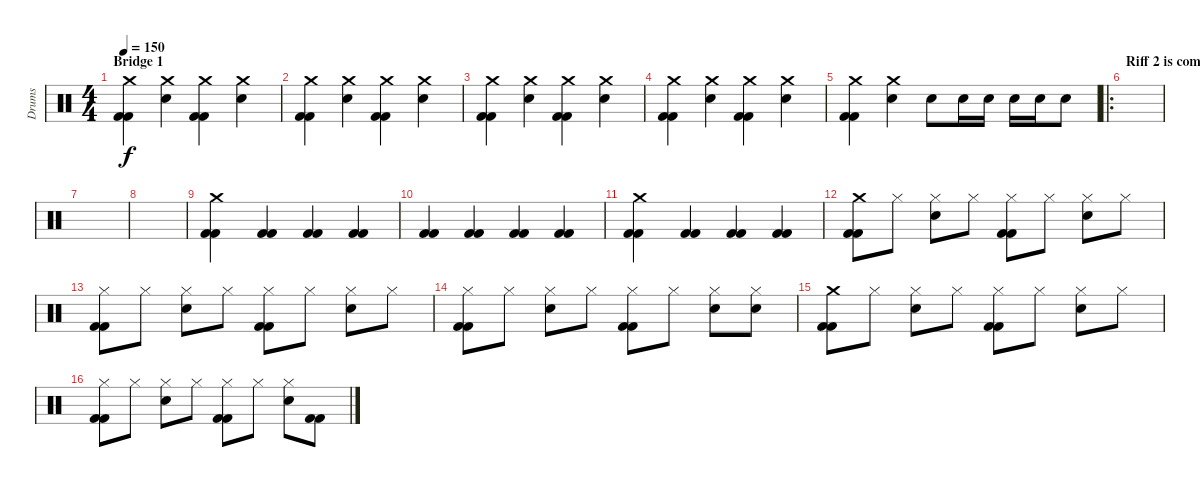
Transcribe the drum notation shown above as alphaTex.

\track ("Drums" "Drums") {instrument percussion}
\staff {score}
\articulation defaults
\ts (4 4)
\section ("" "Bridge 1")
\tempo 150
\clef neutral
\ks c
("Crash medium (hit)" "Kick (hit) 2" "Kick (hit) 2").4{dy f} ("Electric Snare (hit)" "Crash medium (hit)").4 ("Crash medium (hit)" "Kick (hit) 2" "Kick (hit) 2").4 ("Electric Snare (hit)" "Crash medium (hit)").4 |
("Crash medium (hit)" "Kick (hit) 2" "Kick (hit) 2").4 ("Electric Snare (hit)" "Crash medium (hit)").4 ("Crash medium (hit)" "Kick (hit) 2" "Kick (hit) 2").4 ("Electric Snare (hit)" "Crash medium (hit)").4 |
("Crash medium (hit)" "Kick (hit) 2" "Kick (hit) 2").4 ("Electric Snare (hit)" "Crash medium (hit)").4 ("Crash medium (hit)" "Kick (hit) 2" "Kick (hit) 2").4 ("Electric Snare (hit)" "Crash medium (hit)").4 |
("Crash medium (hit)" "Kick (hit) 2" "Kick (hit) 2").4 ("Electric Snare (hit)" "Crash medium (hit)").4 ("Crash medium (hit)" "Kick (hit) 2" "Kick (hit) 2").4 ("Electric Snare (hit)" "Crash medium (hit)").4 |
("Crash medium (hit)" "Kick (hit) 2" "Kick (hit) 2").4 ("Electric Snare (hit)" "Crash medium (hit)").4 "Electric Snare (hit)".8 "Electric Snare (hit)".16 "Electric Snare (hit)".16 "Electric Snare (hit)".16 "Electric Snare (hit)".16 "Electric Snare (hit)".8 |
\ro
\section ("" "Riff 2 is coming...")
|
|
|
("Crash medium (hit)" "Kick (hit) 2" "Kick (hit) 2").4 ("Kick (hit) 2" "Kick (hit) 2").4 ("Kick (hit) 2" "Kick (hit) 2").4 ("Kick (hit) 2" "Kick (hit) 2").4 |
("Kick (hit) 2" "Kick (hit) 2").4 ("Kick (hit) 2" "Kick (hit) 2").4 ("Kick (hit) 2" "Kick (hit) 2").4 ("Kick (hit) 2" "Kick (hit) 2").4 |
("Crash medium (hit)" "Kick (hit) 2" "Kick (hit) 2").4 ("Kick (hit) 2" "Kick (hit) 2").4 ("Kick (hit) 2" "Kick (hit) 2").4 ("Kick (hit) 2" "Kick (hit) 2").4 |
("Crash medium (hit)" "Kick (hit) 2" "Kick (hit) 2").8 "Hi-Hat (closed)".8 ("Electric Snare (hit)" "Hi-Hat (closed)").8 "Hi-Hat (closed)".8 ("Hi-Hat (closed)" "Kick (hit) 2" "Kick (hit) 2").8 "Hi-Hat (closed)".8 ("Electric Snare (hit)" "Hi-Hat (closed)").8 "Hi-Hat (closed)".8 |
("Hi-Hat (closed)" "Kick (hit) 2" "Kick (hit) 2").8 "Hi-Hat (closed)".8 ("Electric Snare (hit)" "Hi-Hat (closed)").8 "Hi-Hat (closed)".8 ("Hi-Hat (closed)" "Kick (hit) 2" "Kick (hit) 2").8 "Hi-Hat (closed)".8 ("Electric Snare (hit)" "Hi-Hat (closed)").8 "Hi-Hat (closed)".8 |
("Hi-Hat (closed)" "Kick (hit) 2" "Kick (hit) 2").8 "Hi-Hat (closed)".8 ("Electric Snare (hit)" "Hi-Hat (closed)").8 "Hi-Hat (closed)".8 ("Hi-Hat (closed)" "Kick (hit) 2" "Kick (hit) 2").8 "Hi-Hat (closed)".8 ("Electric Snare (hit)" "Hi-Hat (closed)").8 ("Electric Snare (hit)" "Hi-Hat (closed)").8 |
("Crash medium (hit)" "Kick (hit) 2" "Kick (hit) 2").8 "Hi-Hat (closed)".8 ("Electric Snare (hit)" "Hi-Hat (closed)").8 "Hi-Hat (closed)".8 ("Hi-Hat (closed)" "Kick (hit) 2" "Kick (hit) 2").8 "Hi-Hat (closed)".8 ("Electric Snare (hit)" "Hi-Hat (closed)").8 "Hi-Hat (closed)".8 |
("Hi-Hat (closed)" "Kick (hit) 2" "Kick (hit) 2").8 "Hi-Hat (closed)".8 ("Electric Snare (hit)" "Hi-Hat (closed)").8 "Hi-Hat (closed)".8 ("Hi-Hat (closed)" "Kick (hit) 2" "Kick (hit) 2").8 "Hi-Hat (closed)".8 ("Electric Snare (hit)" "Hi-Hat (closed)").8 ("Kick (hit) 2" "Kick (hit) 2").8
